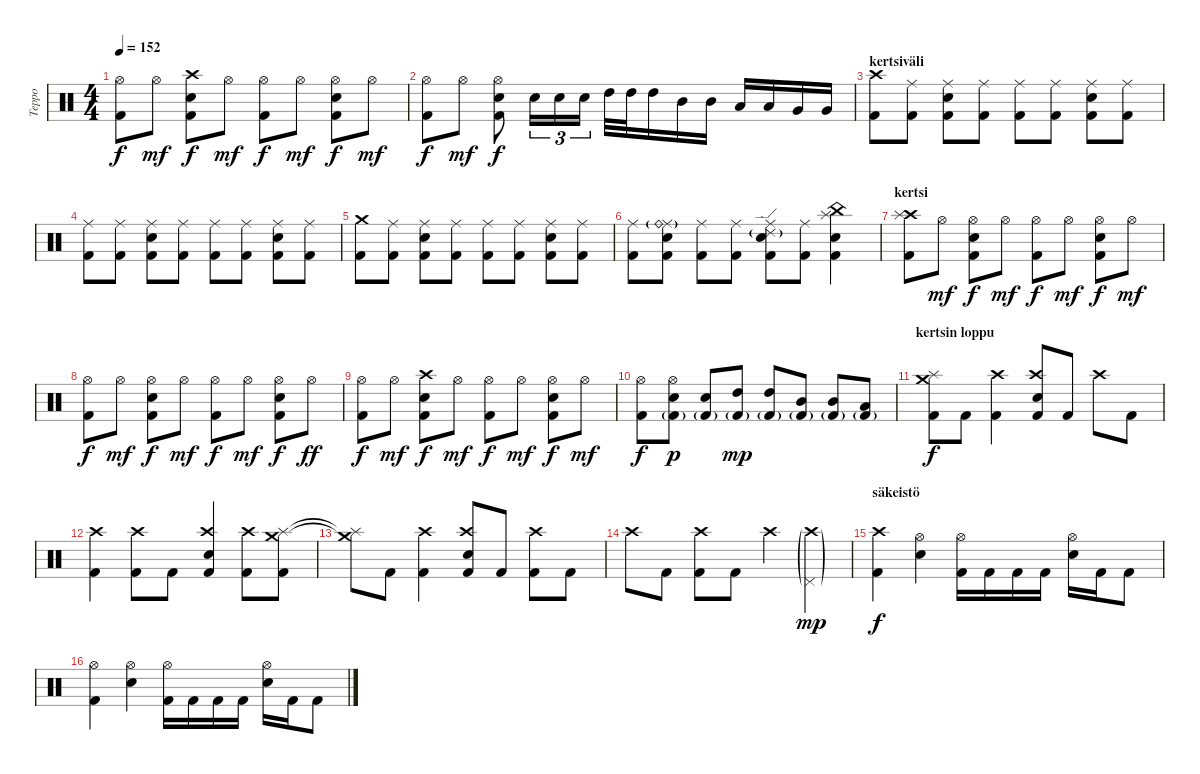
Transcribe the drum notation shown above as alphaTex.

\track ("Teppo" "Teppo") {instrument percussion}
\staff {score}
\articulation defaults
\ts (4 4)
\tempo 152
\clef neutral
\ks c
("Hi-Hat (open)" "Kick (hit) 2").8{dy f} "Hi-Hat (open)".8{dy mf} ("Crash high (hit)" "Electric Snare (hit)" "Kick (hit) 2").8{dy f} "Hi-Hat (open)".8{dy mf} ("Hi-Hat (open)" "Kick (hit) 2").8{dy f} "Hi-Hat (open)".8{dy mf} ("Hi-Hat (open)" "Electric Snare (hit)" "Kick (hit) 2").8{dy f} "Hi-Hat (open)".8{dy mf} |
("Hi-Hat (open)" "Kick (hit) 2").8{dy f} "Hi-Hat (open)".8{dy mf} ("Hi-Hat (open)" "Electric Snare (hit)" "Kick (hit) 2").8{dy f} "Electric Snare (hit)".16{tu (3 2)} "Electric Snare (hit)".16{tu (3 2)} "Electric Snare (hit)".16{tu (3 2)} "High Tom (hit)".32 "High Tom (hit)".32 "High Tom (hit)".16 "Mid Tom (hit)".16 "Mid Tom (hit)".16 "Low Tom (hit)".16 "Low Tom (hit)".16 "Very Low Tom (hit)".16 "Very Low Tom (hit)".16 |
\section ("" "kertsiväli")
("Crash high (hit)" "Kick (hit) 2").8 ("Ride (middle)" "Kick (hit) 2").8 ("Ride (middle)" "Electric Snare (hit)" "Kick (hit) 2").8 ("Ride (middle)" "Kick (hit) 2").8 ("Ride (middle)" "Kick (hit) 2").8 ("Ride (middle)" "Kick (hit) 2").8 ("Ride (middle)" "Electric Snare (hit)" "Kick (hit) 2").8 ("Ride (middle)" "Kick (hit) 2").8 |
("Ride (middle)" "Kick (hit) 2").8 ("Ride (middle)" "Kick (hit) 2").8 ("Ride (middle)" "Electric Snare (hit)" "Kick (hit) 2").8 ("Ride (middle)" "Kick (hit) 2").8 ("Ride (middle)" "Kick (hit) 2").8 ("Ride (middle)" "Kick (hit) 2").8 ("Ride (middle)" "Electric Snare (hit)" "Kick (hit) 2").8 ("Ride (middle)" "Kick (hit) 2").8 |
("Crash medium (hit)" "Kick (hit) 2").8 ("Ride (middle)" "Kick (hit) 2").8 ("Ride (middle)" "Electric Snare (hit)" "Kick (hit) 2").8 ("Ride (middle)" "Kick (hit) 2").8 ("Ride (middle)" "Kick (hit) 2").8 ("Ride (middle)" "Kick (hit) 2").8 ("Ride (middle)" "Electric Snare (hit)" "Kick (hit) 2").8 ("Ride (middle)" "Kick (hit) 2").8 |
("Ride (middle)" "Kick (hit) 2").8 ("Ride (middle)" "Ride (bell)"{g} "Electric Snare (hit)" "Kick (hit) 2").8 ("Ride (middle)" "Kick (hit) 2").8 ("Ride (middle)" "Kick (hit) 2").8 ("Ride (middle)" "Ride (edge) 2"{g} "Electric Snare (hit)" "Kick (hit) 2").8 ("Ride (middle)" "Kick (hit) 2").8 ("China (hit)" "Splash (hit)" "Electric Snare (hit)" "Kick (hit) 2").4 |
\section ("" "kertsi")
("Crash high (hit)" "Splash (hit)" "Kick (hit) 2").8 "Hi-Hat (open)".8{dy mf} ("Hi-Hat (open)" "Electric Snare (hit)" "Kick (hit) 2").8{dy f} "Hi-Hat (open)".8{dy mf} ("Hi-Hat (open)" "Kick (hit) 2").8{dy f} "Hi-Hat (open)".8{dy mf} ("Hi-Hat (open)" "Electric Snare (hit)" "Kick (hit) 2").8{dy f} "Hi-Hat (open)".8{dy mf} |
("Hi-Hat (open)" "Kick (hit) 2").8{dy f} "Hi-Hat (open)".8{dy mf} ("Hi-Hat (open)" "Electric Snare (hit)" "Kick (hit) 2").8{dy f} "Hi-Hat (open)".8{dy mf} ("Hi-Hat (open)" "Kick (hit) 2").8{dy f} "Hi-Hat (open)".8{dy mf} ("Hi-Hat (open)" "Electric Snare (hit)" "Kick (hit) 2").8{dy f} "Hi-Hat (open)".8{dy ff} |
("Hi-Hat (open)" "Kick (hit) 2").8{dy f} "Hi-Hat (open)".8{dy mf} ("Crash high (hit)" "Electric Snare (hit)" "Kick (hit) 2").8{dy f} "Hi-Hat (open)".8{dy mf} ("Hi-Hat (open)" "Kick (hit) 2").8{dy f} "Hi-Hat (open)".8{dy mf} ("Hi-Hat (open)" "Electric Snare (hit)" "Kick (hit) 2").8{dy f} "Hi-Hat (open)".8{dy mf} |
("Hi-Hat (open)" "Kick (hit) 2").8{dy f} ("Hi-Hat (open)" "Electric Snare (hit)" "Kick (hit) 2"{g}).8{dy p} ("Electric Snare (hit)" "Kick (hit) 2"{g}).8 ("High Tom (hit)" "Kick (hit) 2"{g}).8{dy mp} ("High Tom (hit)" "Kick (hit) 2"{g}).8 ("Mid Tom (hit)" "Kick (hit) 2"{g}).8 ("Mid Tom (hit)" "Kick (hit) 2"{g}).8 ("Low Tom (hit)" "Kick (hit) 2"{g}).8 |
\section ("" "kertsin loppu")
("Crash medium (hit)" "Splash (hit)" "Kick (hit) 2").8{dy f} "Kick (hit) 2".8 ("Crash high (hit)" "Kick (hit) 2").4 ("Crash high (hit)" "Electric Snare (hit)" "Kick (hit) 2").8 "Kick (hit) 2".8 "Crash high (hit)".8 "Kick (hit) 2".8 |
("Crash high (hit)" "Kick (hit) 2").4 ("Crash high (hit)" "Kick (hit) 2").8 "Kick (hit) 2".8 ("Crash high (hit)" "Electric Snare (hit)" "Kick (hit) 2").4 ("Crash high (hit)" "Kick (hit) 2").8 ("Crash medium (hit)" "Splash (hit)" "Kick (hit) 2").8 |
("Crash medium (hit)"{t} "Splash (hit)"{t}).8 "Kick (hit) 2".8 ("Crash high (hit)" "Kick (hit) 2").4 ("Crash high (hit)" "Electric Snare (hit)" "Kick (hit) 2").8 "Kick (hit) 2".8 ("Crash high (hit)" "Kick (hit) 2").8 "Kick (hit) 2".8 |
"Crash high (hit)".8 "Kick (hit) 2".8 ("Crash high (hit)" "Kick (hit) 2").8 "Kick (hit) 2".8 "Crash high (hit)".4 ("Crash high (hit)"{g} "Pedal Hi-Hat (hit)"{g}).4{dy mp} |
\section ("" "säkeistö")
("Crash high (hit)" "Kick (hit) 2").4{dy f} ("Hi-Hat (open)" "Electric Snare (hit)").4 ("Hi-Hat (open)" "Kick (hit) 2").16 "Kick (hit) 2".16 "Kick (hit) 2".16 "Kick (hit) 2".16 ("Hi-Hat (open)" "Electric Snare (hit)").16 "Kick (hit) 2".16 "Kick (hit) 2".8 |
("Hi-Hat (open)" "Kick (hit) 2").4 ("Hi-Hat (open)" "Electric Snare (hit)").4 ("Hi-Hat (open)" "Kick (hit) 2").16 "Kick (hit) 2".16 "Kick (hit) 2".16 "Kick (hit) 2".16 ("Hi-Hat (open)" "Electric Snare (hit)").16 "Kick (hit) 2".16 "Kick (hit) 2".8
